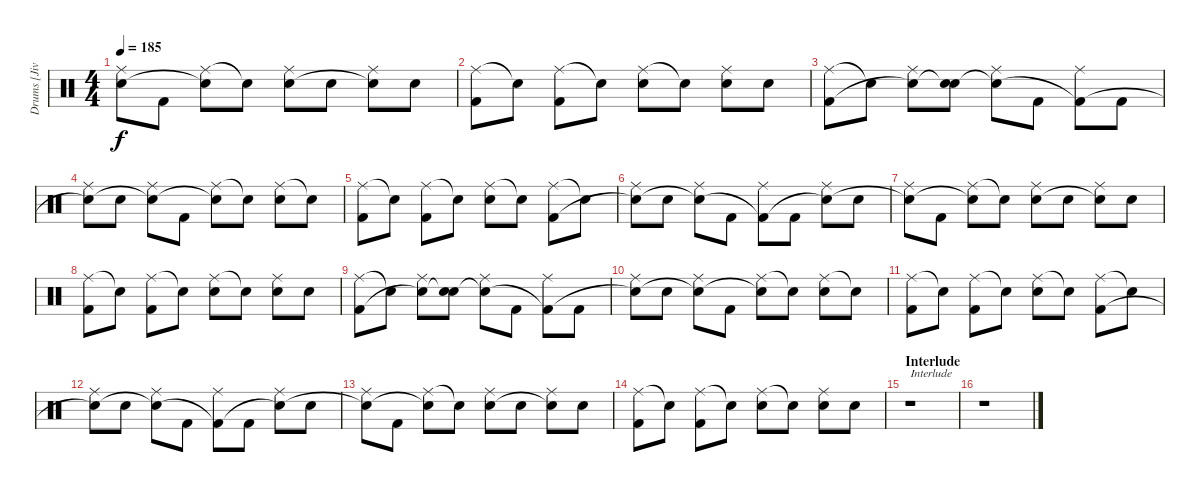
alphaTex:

\track ("Drums [Jivarp]" "Drums [Jiv") {instrument percussion}
\staff {score}
\articulation defaults
\ts (4 4)
\tempo 185
\clef neutral
\ks c
("Ride (middle)" "Snare (hit)"{t}).8{dy f} "Kick (hit) 2".8 ("Ride (middle)" "Snare (hit)"{t}).8 "Snare (hit)"{t}.8 ("Ride (middle)" "Electric Snare (hit)").8 "Electric Snare (hit)".8 ("Ride (middle)" "Snare (hit)"{t}).8 "Electric Snare (hit)".8 |
("Ride (middle)" "Kick (hit) 2").8 "Snare (hit)"{t}.8 ("Ride (middle)" "Kick (hit) 2").8 "Snare (hit)"{t}.8 ("Ride (middle)" "Electric Snare (hit)").8 "Snare (hit)"{t}.8 ("Ride (middle)" "Electric Snare (hit)").8 "Electric Snare (hit)".8 |
("Ride (middle)" "Kick (hit) 2").8 "Snare (hit)"{t}.8 ("Ride (middle)" "Snare (hit)"{t}).8 ("Electric Snare (hit)" "Snare (hit)"{t}).8 ("Ride (middle)" "Snare (hit)"{t}).8 "Kick (hit) 2".8 ("Ride (middle)" "Kick (hit) 2"{t}).8 "Kick (hit) 2".8 |
("Ride (middle)" "Snare (hit)"{t}).8 "Electric Snare (hit)".8 ("Ride (middle)" "Snare (hit)"{t}).8 "Kick (hit) 2".8 ("Ride (middle)" "Snare (hit)"{t}).8 "Snare (hit)"{t}.8 ("Ride (middle)" "Electric Snare (hit)").8 "Snare (hit)"{t}.8 |
("Ride (middle)" "Kick (hit) 2").8 "Snare (hit)"{t}.8 ("Ride (middle)" "Kick (hit) 2").8 "Snare (hit)"{t}.8 ("Ride (middle)" "Electric Snare (hit)").8 "Snare (hit)"{t}.8 ("Ride (middle)" "Kick (hit) 2").8 "Snare (hit)"{t}.8 |
("Ride (middle)" "Snare (hit)"{t}).8 "Electric Snare (hit)".8 ("Ride (middle)" "Snare (hit)"{t}).8 "Kick (hit) 2".8 ("Ride (middle)" "Kick (hit) 2"{t}).8 "Kick (hit) 2".8 ("Ride (middle)" "Snare (hit)"{t}).8 "Electric Snare (hit)".8 |
("Ride (middle)" "Snare (hit)"{t}).8 "Kick (hit) 2".8 ("Ride (middle)" "Snare (hit)"{t}).8 "Snare (hit)"{t}.8 ("Ride (middle)" "Electric Snare (hit)").8 "Electric Snare (hit)".8 ("Ride (middle)" "Snare (hit)"{t}).8 "Electric Snare (hit)".8 |
("Ride (middle)" "Kick (hit) 2").8 "Snare (hit)"{t}.8 ("Ride (middle)" "Kick (hit) 2").8 "Snare (hit)"{t}.8 ("Ride (middle)" "Electric Snare (hit)").8 "Snare (hit)"{t}.8 ("Ride (middle)" "Electric Snare (hit)").8 "Electric Snare (hit)".8 |
("Ride (middle)" "Kick (hit) 2").8 "Snare (hit)"{t}.8 ("Ride (middle)" "Snare (hit)"{t}).8 ("Electric Snare (hit)" "Snare (hit)"{t}).8 ("Ride (middle)" "Snare (hit)"{t}).8 "Kick (hit) 2".8 ("Ride (middle)" "Kick (hit) 2"{t}).8 "Kick (hit) 2".8 |
("Ride (middle)" "Snare (hit)"{t}).8 "Electric Snare (hit)".8 ("Ride (middle)" "Snare (hit)"{t}).8 "Kick (hit) 2".8 ("Ride (middle)" "Snare (hit)"{t}).8 "Snare (hit)"{t}.8 ("Ride (middle)" "Electric Snare (hit)").8 "Snare (hit)"{t}.8 |
("Ride (middle)" "Kick (hit) 2").8 "Snare (hit)"{t}.8 ("Ride (middle)" "Kick (hit) 2").8 "Snare (hit)"{t}.8 ("Ride (middle)" "Electric Snare (hit)").8 "Snare (hit)"{t}.8 ("Ride (middle)" "Kick (hit) 2").8 "Snare (hit)"{t}.8 |
("Ride (middle)" "Snare (hit)"{t}).8 "Electric Snare (hit)".8 ("Ride (middle)" "Snare (hit)"{t}).8 "Kick (hit) 2".8 ("Ride (middle)" "Kick (hit) 2"{t}).8 "Kick (hit) 2".8 ("Ride (middle)" "Snare (hit)"{t}).8 "Electric Snare (hit)".8 |
("Ride (middle)" "Snare (hit)"{t}).8 "Kick (hit) 2".8 ("Ride (middle)" "Snare (hit)"{t}).8 "Snare (hit)"{t}.8 ("Ride (middle)" "Electric Snare (hit)").8 "Electric Snare (hit)".8 ("Ride (middle)" "Snare (hit)"{t}).8 "Electric Snare (hit)".8 |
("Ride (middle)" "Kick (hit) 2").8 "Snare (hit)"{t}.8 ("Ride (middle)" "Kick (hit) 2").8 "Snare (hit)"{t}.8 ("Ride (middle)" "Electric Snare (hit)").8 "Snare (hit)"{t}.8 ("Ride (middle)" "Electric Snare (hit)").8 "Electric Snare (hit)".8 |
\section ("" "Interlude")
r.1{txt "Interlude"} |
r.1
